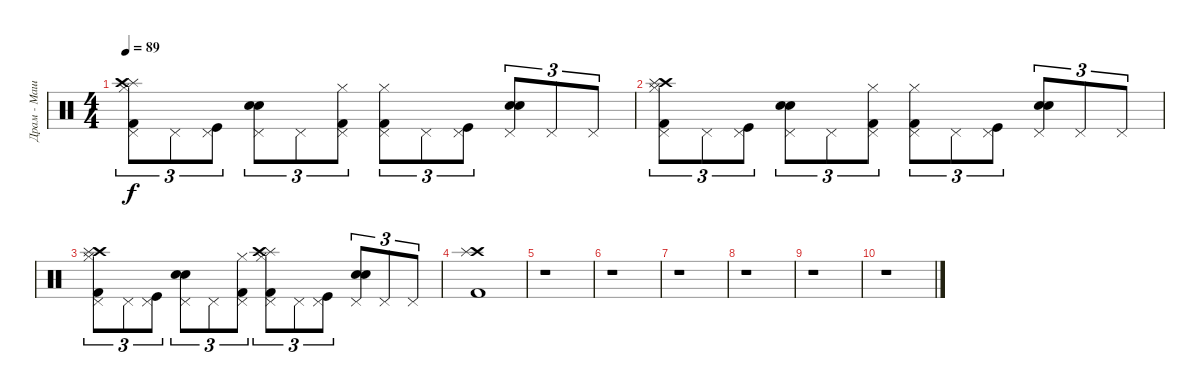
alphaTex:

\track ("Драм - Машина" "Драм - Маш") {instrument percussion}
\staff {score}
\articulation defaults
\ts (4 4)
\tempo 89
\clef neutral
\ks c
("Hi-Hat (closed)" "Kick (hit) 2" "Splash (hit)" "Pedal Hi-Hat (hit)" "Crash high (hit)").8{tu (3 2) dy f} "Pedal Hi-Hat (hit)".8{tu (3 2)} ("Pedal Hi-Hat (hit)" "Kick (hit)").8{tu (3 2)} ("Electric Snare (hit)" "Snare (hit) 2" "Pedal Hi-Hat (hit)").8{tu (3 2)} "Pedal Hi-Hat (hit)".8{tu (3 2)} ("Hi-Hat (closed)" "Kick (hit) 2" "Pedal Hi-Hat (hit)").8{tu (3 2)} ("Hi-Hat (closed)" "Kick (hit) 2" "Pedal Hi-Hat (hit)").8{tu (3 2)} "Pedal Hi-Hat (hit)".8{tu (3 2)} ("Kick (hit)" "Pedal Hi-Hat (hit)").8{tu (3 2)} ("Electric Snare (hit)" "Snare (hit) 2" "Pedal Hi-Hat (hit)").8{tu (3 2)} "Pedal Hi-Hat (hit)".8{tu (3 2)} "Pedal Hi-Hat (hit)".8{tu (3 2)} |
("Crash high (hit)" "Kick (hit) 2" "Hi-Hat (closed)" "Pedal Hi-Hat (hit)" "Splash (hit)").8{tu (3 2)} "Pedal Hi-Hat (hit)".8{tu (3 2)} ("Pedal Hi-Hat (hit)" "Kick (hit)").8{tu (3 2)} ("Snare (hit) 2" "Pedal Hi-Hat (hit)" "Electric Snare (hit)").8{tu (3 2)} "Pedal Hi-Hat (hit)".8{tu (3 2)} ("Hi-Hat (closed)" "Kick (hit) 2" "Pedal Hi-Hat (hit)").8{tu (3 2)} ("Kick (hit) 2" "Pedal Hi-Hat (hit)" "Hi-Hat (closed)").8{tu (3 2)} "Pedal Hi-Hat (hit)".8{tu (3 2)} ("Kick (hit)" "Pedal Hi-Hat (hit)").8{tu (3 2)} ("Snare (hit) 2" "Electric Snare (hit)" "Pedal Hi-Hat (hit)").8{tu (3 2)} "Pedal Hi-Hat (hit)".8{tu (3 2)} "Pedal Hi-Hat (hit)".8{tu (3 2)} |
("Hi-Hat (closed)" "Pedal Hi-Hat (hit)" "Crash high (hit)" "Kick (hit) 2" "Splash (hit)").8{tu (3 2)} "Pedal Hi-Hat (hit)".8{tu (3 2)} ("Kick (hit)" "Pedal Hi-Hat (hit)").8{tu (3 2)} ("Snare (hit) 2" "Pedal Hi-Hat (hit)" "Electric Snare (hit)").8{tu (3 2)} "Pedal Hi-Hat (hit)".8{tu (3 2)} ("Hi-Hat (closed)" "Pedal Hi-Hat (hit)" "Kick (hit) 2").8{tu (3 2)} ("Splash (hit)" "Hi-Hat (closed)" "Crash high (hit)" "Kick (hit) 2" "Pedal Hi-Hat (hit)").8{tu (3 2)} "Pedal Hi-Hat (hit)".8{tu (3 2)} ("Pedal Hi-Hat (hit)" "Kick (hit)").8{tu (3 2)} ("Pedal Hi-Hat (hit)" "Snare (hit) 2" "Electric Snare (hit)").8{tu (3 2)} "Pedal Hi-Hat (hit)".8{tu (3 2)} "Pedal Hi-Hat (hit)".8{tu (3 2)} |
("Crash high (hit)" "Kick (hit) 2" "Splash (hit)").1 |
r.1 |
r.1 |
r.1 |
r.1 |
r.1 |
r.1
